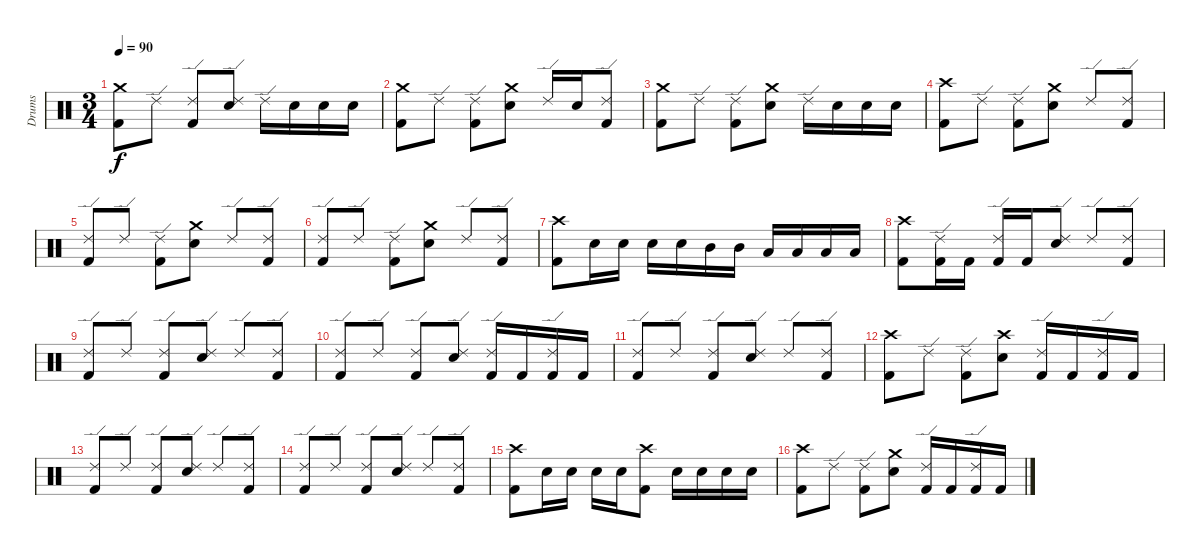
\track ("Drums" "Drums") {instrument percussion}
\staff {score}
\articulation defaults
\ts (3 4)
\tempo 90
\clef neutral
\ks c
("Crash medium (hit)" "Kick (hit) 2").8{dy f} "Ride (edge) 2".8 ("Ride (edge) 2" "Kick (hit) 2").8 ("Ride (edge) 2" "Electric Snare (hit)").8 "Ride (edge) 2".16 "Electric Snare (hit)".16 "Electric Snare (hit)".16 "Electric Snare (hit)".16 |
("Crash medium (hit)" "Kick (hit) 2").8 "Ride (edge) 2".8 ("Ride (edge) 2" "Kick (hit) 2").8 ("Crash medium (hit)" "Electric Snare (hit)").8 "Ride (edge) 2".16 "Electric Snare (hit)".16 ("Ride (edge) 2" "Kick (hit) 2").8 |
("Crash medium (hit)" "Kick (hit) 2").8 "Ride (edge) 2".8 ("Ride (edge) 2" "Kick (hit) 2").8 ("Crash medium (hit)" "Electric Snare (hit)").8 "Ride (edge) 2".16 "Electric Snare (hit)".16 "Electric Snare (hit)".16 "Electric Snare (hit)".16 |
("Crash high (hit)" "Kick (hit) 2").8 "Ride (edge) 2".8 ("Ride (edge) 2" "Kick (hit) 2").8 ("Crash medium (hit)" "Electric Snare (hit)").8 "Ride (edge) 2".8 ("Ride (edge) 2" "Kick (hit) 2").8 |
("Ride (edge) 2" "Kick (hit) 2").8 "Ride (edge) 2".8 ("Ride (edge) 2" "Kick (hit) 2").8 ("Crash medium (hit)" "Electric Snare (hit)").8 "Ride (edge) 2".8 ("Ride (edge) 2" "Kick (hit) 2").8 |
("Ride (edge) 2" "Kick (hit) 2").8 "Ride (edge) 2".8 ("Ride (edge) 2" "Kick (hit) 2").8 ("Crash medium (hit)" "Electric Snare (hit)").8 "Ride (edge) 2".8 ("Ride (edge) 2" "Kick (hit) 2").8 |
("Crash high (hit)" "Kick (hit) 2").8 "Electric Snare (hit)".16 "Electric Snare (hit)".16 "Electric Snare (hit)".16 "Electric Snare (hit)".16 "Mid Tom (hit)".16 "Mid Tom (hit)".16 "Low Tom (hit)".16 "Low Tom (hit)".16 "Low Tom (hit)".16 "Low Tom (hit)".16 |
("Crash high (hit)" "Kick (hit) 2").8 ("Ride (edge) 2" "Kick (hit) 2").16 "Kick (hit) 2".16 ("Ride (edge) 2" "Kick (hit) 2").16 "Kick (hit) 2".16 ("Ride (edge) 2" "Electric Snare (hit)").8 "Ride (edge) 2".8 ("Ride (edge) 2" "Kick (hit) 2").8 |
("Ride (edge) 2" "Kick (hit) 2").8 "Ride (edge) 2".8 ("Ride (edge) 2" "Kick (hit) 2").8 ("Ride (edge) 2" "Electric Snare (hit)").8 "Ride (edge) 2".8 ("Ride (edge) 2" "Kick (hit) 2").8 |
("Ride (edge) 2" "Kick (hit) 2").8 "Ride (edge) 2".8 ("Ride (edge) 2" "Kick (hit) 2").8 ("Ride (edge) 2" "Electric Snare (hit)").8 ("Ride (edge) 2" "Kick (hit) 2").16 "Kick (hit) 2".16 ("Ride (edge) 2" "Kick (hit) 2").16 "Kick (hit) 2".16 |
("Ride (edge) 2" "Kick (hit) 2").8 "Ride (edge) 2".8 ("Ride (edge) 2" "Kick (hit) 2").8 ("Ride (edge) 2" "Electric Snare (hit)").8 "Ride (edge) 2".8 ("Ride (edge) 2" "Kick (hit) 2").8 |
("Crash high (hit)" "Kick (hit) 2").8 "Ride (edge) 2".8 ("Ride (edge) 2" "Kick (hit) 2").8 ("Crash high (hit)" "Electric Snare (hit)").8 ("Ride (edge) 2" "Kick (hit) 2").16 "Kick (hit) 2".16 ("Ride (edge) 2" "Kick (hit) 2").16 "Kick (hit) 2".16 |
("Ride (edge) 2" "Kick (hit) 2").8 "Ride (edge) 2".8 ("Ride (edge) 2" "Kick (hit) 2").8 ("Ride (edge) 2" "Electric Snare (hit)").8 "Ride (edge) 2".8 ("Ride (edge) 2" "Kick (hit) 2").8 |
("Ride (edge) 2" "Kick (hit) 2").8 "Ride (edge) 2".8 ("Ride (edge) 2" "Kick (hit) 2").8 ("Ride (edge) 2" "Electric Snare (hit)").8 "Ride (edge) 2".8 ("Ride (edge) 2" "Kick (hit) 2").8 |
("Crash high (hit)" "Kick (hit) 2").8 "Electric Snare (hit)".16 "Electric Snare (hit)".16 "Electric Snare (hit)".16 "Electric Snare (hit)".16 ("Crash high (hit)" "Kick (hit) 2").8 "Electric Snare (hit)".16 "Electric Snare (hit)".16 "Electric Snare (hit)".16 "Electric Snare (hit)".16 |
("Crash high (hit)" "Kick (hit) 2").8 "Ride (edge) 2".8 ("Ride (edge) 2" "Kick (hit) 2").8 ("Crash medium (hit)" "Electric Snare (hit)").8 ("Ride (edge) 2" "Kick (hit) 2").16 "Kick (hit) 2".16 ("Ride (edge) 2" "Kick (hit) 2").16 "Kick (hit) 2".16
